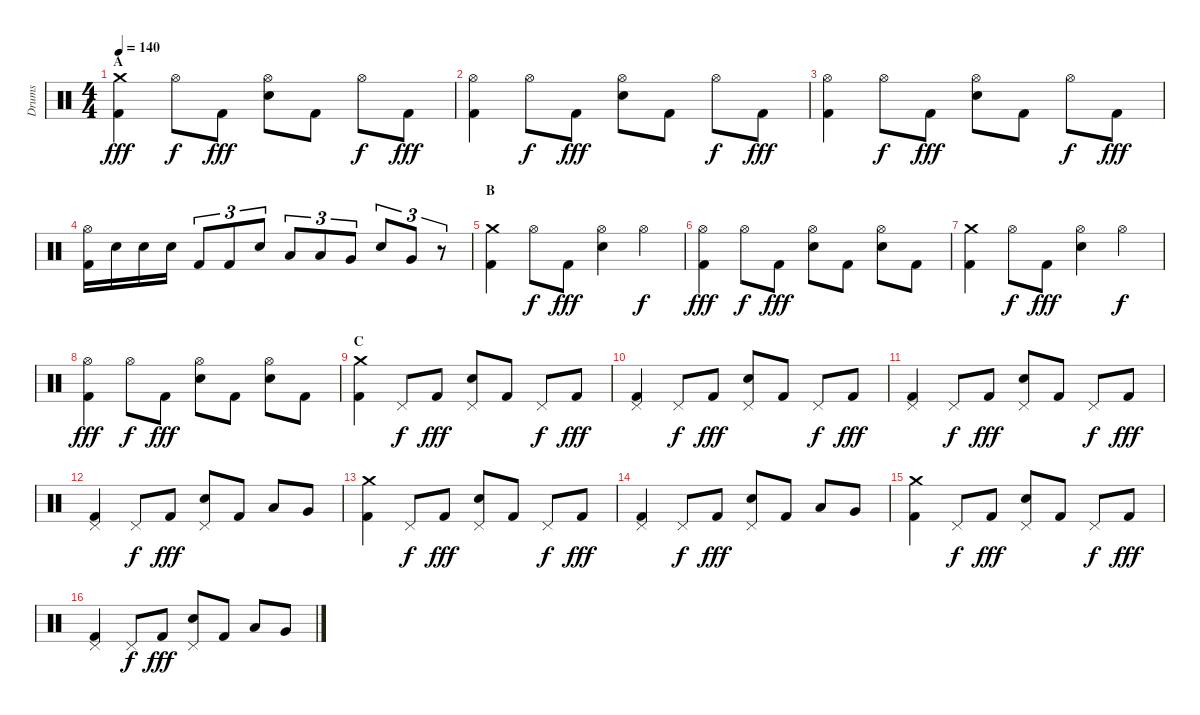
\track ("Drums" "Drums") {instrument percussion}
\staff {score}
\articulation defaults
\ts (4 4)
\section ("" "A")
\tempo 140
\clef neutral
\ks c
("Crash medium (hit)" "Kick (hit) 2").4{dy fff} "Hi-Hat (open)".8{dy f} "Kick (hit) 2".8{dy fff} ("Hi-Hat (open)" "Electric Snare (hit)").8 "Kick (hit) 2".8 "Hi-Hat (open)".8{dy f} "Kick (hit) 2".8{dy fff} |
("Hi-Hat (open)" "Kick (hit) 2").4 "Hi-Hat (open)".8{dy f} "Kick (hit) 2".8{dy fff} ("Hi-Hat (open)" "Electric Snare (hit)").8 "Kick (hit) 2".8 "Hi-Hat (open)".8{dy f} "Kick (hit) 2".8{dy fff} |
("Hi-Hat (open)" "Kick (hit) 2").4 "Hi-Hat (open)".8{dy f} "Kick (hit) 2".8{dy fff} ("Hi-Hat (open)" "Electric Snare (hit)").8 "Kick (hit) 2".8 "Hi-Hat (open)".8{dy f} "Kick (hit) 2".8{dy fff} |
("Hi-Hat (open)" "Kick (hit) 2").16 "Electric Snare (hit)".16 "Electric Snare (hit)".16 "Electric Snare (hit)".16 "Kick (hit) 2".8{tu (3 2)} "Kick (hit) 2".8{tu (3 2)} "Electric Snare (hit)".8{tu (3 2)} "Low Tom (hit)".8{tu (3 2)} "Low Tom (hit)".8{tu (3 2)} "Very Low Tom (hit)".8{tu (3 2)} "Electric Snare (hit)".8{tu (3 2)} "Very Low Tom (hit)".8{tu (3 2)} r.8{tu (3 2)} |
\section ("" "B")
("Crash medium (hit)" "Kick (hit) 2").4 "Hi-Hat (open)".8{dy f} "Kick (hit) 2".8{dy fff} ("Hi-Hat (open)" "Electric Snare (hit)").4 "Hi-Hat (open)".4{dy f} |
("Hi-Hat (open)" "Kick (hit) 2").4{dy fff} "Hi-Hat (open)".8{dy f} "Kick (hit) 2".8{dy fff} ("Hi-Hat (open)" "Electric Snare (hit)").8 "Kick (hit) 2".8 ("Hi-Hat (open)" "Electric Snare (hit)").8 "Kick (hit) 2".8 |
("Crash medium (hit)" "Kick (hit) 2").4 "Hi-Hat (open)".8{dy f} "Kick (hit) 2".8{dy fff} ("Hi-Hat (open)" "Electric Snare (hit)").4 "Hi-Hat (open)".4{dy f} |
("Hi-Hat (open)" "Kick (hit) 2").4{dy fff} "Hi-Hat (open)".8{dy f} "Kick (hit) 2".8{dy fff} ("Hi-Hat (open)" "Electric Snare (hit)").8 "Kick (hit) 2".8 ("Hi-Hat (open)" "Electric Snare (hit)").8 "Kick (hit) 2".8 |
\section ("" "C")
("Crash medium (hit)" "Kick (hit) 2").4 "Pedal Hi-Hat (hit)".8{dy f} "Kick (hit) 2".8{dy fff} ("Pedal Hi-Hat (hit)" "Electric Snare (hit)").8 "Kick (hit) 2".8 "Pedal Hi-Hat (hit)".8{dy f} "Kick (hit) 2".8{dy fff} |
("Pedal Hi-Hat (hit)" "Kick (hit) 2").4 "Pedal Hi-Hat (hit)".8{dy f} "Kick (hit) 2".8{dy fff} ("Pedal Hi-Hat (hit)" "Electric Snare (hit)").8 "Kick (hit) 2".8 "Pedal Hi-Hat (hit)".8{dy f} "Kick (hit) 2".8{dy fff} |
("Pedal Hi-Hat (hit)" "Kick (hit) 2").4 "Pedal Hi-Hat (hit)".8{dy f} "Kick (hit) 2".8{dy fff} ("Pedal Hi-Hat (hit)" "Electric Snare (hit)").8 "Kick (hit) 2".8 "Pedal Hi-Hat (hit)".8{dy f} "Kick (hit) 2".8{dy fff} |
("Pedal Hi-Hat (hit)" "Kick (hit) 2").4 "Pedal Hi-Hat (hit)".8{dy f} "Kick (hit) 2".8{dy fff} ("Pedal Hi-Hat (hit)" "Electric Snare (hit)").8 "Kick (hit) 2".8 "Low Tom (hit)".8 "Very Low Tom (hit)".8 |
("Crash medium (hit)" "Kick (hit) 2").4 "Pedal Hi-Hat (hit)".8{dy f} "Kick (hit) 2".8{dy fff} ("Pedal Hi-Hat (hit)" "Electric Snare (hit)").8 "Kick (hit) 2".8 "Pedal Hi-Hat (hit)".8{dy f} "Kick (hit) 2".8{dy fff} |
("Pedal Hi-Hat (hit)" "Kick (hit) 2").4 "Pedal Hi-Hat (hit)".8{dy f} "Kick (hit) 2".8{dy fff} ("Pedal Hi-Hat (hit)" "Electric Snare (hit)").8 "Kick (hit) 2".8 "Low Tom (hit)".8 "Very Low Tom (hit)".8 |
("Crash medium (hit)" "Kick (hit) 2").4 "Pedal Hi-Hat (hit)".8{dy f} "Kick (hit) 2".8{dy fff} ("Pedal Hi-Hat (hit)" "Electric Snare (hit)").8 "Kick (hit) 2".8 "Pedal Hi-Hat (hit)".8{dy f} "Kick (hit) 2".8{dy fff} |
("Pedal Hi-Hat (hit)" "Kick (hit) 2").4 "Pedal Hi-Hat (hit)".8{dy f} "Kick (hit) 2".8{dy fff} ("Pedal Hi-Hat (hit)" "Electric Snare (hit)").8 "Kick (hit) 2".8 "Low Tom (hit)".8 "Very Low Tom (hit)".8
